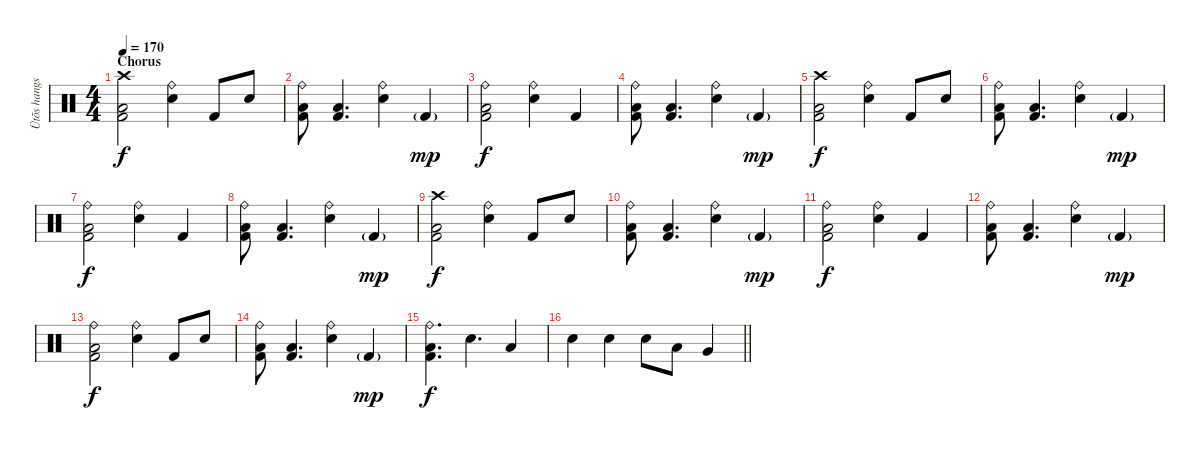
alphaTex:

\track ("Ütõs hangszer" "Ütõs hangs") {instrument percussion}
\staff {score}
\articulation defaults
\ts (4 4)
\section ("" "Chorus")
\tempo 170
\clef neutral
\ks c
("Crash high (hit)" "Kick (hit) 2" "Low Floor Tom (hit)").2{dy f} ("Ride (bell)" "Electric Snare (hit)").4 "Kick (hit) 2".8 "Electric Snare (hit)".8 |
("Ride (bell)" "Kick (hit) 2" "Low Floor Tom (hit)").8 ("Kick (hit) 2" "Low Floor Tom (hit)").4{d} ("Ride (bell)" "Electric Snare (hit)").4 "Kick (hit) 2"{g}.4{dy mp} |
("Ride (bell)" "Kick (hit) 2" "Low Floor Tom (hit)").2{dy f} ("Ride (bell)" "Electric Snare (hit)").4 "Kick (hit) 2".4 |
("Ride (bell)" "Kick (hit) 2" "Low Floor Tom (hit)").8 ("Kick (hit) 2" "Low Floor Tom (hit)").4{d} ("Ride (bell)" "Electric Snare (hit)").4 "Kick (hit) 2"{g}.4{dy mp} |
("Crash high (hit)" "Kick (hit) 2" "Low Floor Tom (hit)").2{dy f} ("Ride (bell)" "Electric Snare (hit)").4 "Kick (hit) 2".8 "Electric Snare (hit)".8 |
("Ride (bell)" "Kick (hit) 2" "Low Floor Tom (hit)").8 ("Kick (hit) 2" "Low Floor Tom (hit)").4{d} ("Ride (bell)" "Electric Snare (hit)").4 "Kick (hit) 2"{g}.4{dy mp} |
("Ride (bell)" "Kick (hit) 2" "Low Floor Tom (hit)").2{dy f} ("Ride (bell)" "Electric Snare (hit)").4 "Kick (hit) 2".4 |
("Ride (bell)" "Kick (hit) 2" "Low Floor Tom (hit)").8 ("Kick (hit) 2" "Low Floor Tom (hit)").4{d} ("Ride (bell)" "Electric Snare (hit)").4 "Kick (hit) 2"{g}.4{dy mp} |
("Crash high (hit)" "Kick (hit) 2" "Low Floor Tom (hit)").2{dy f} ("Ride (bell)" "Electric Snare (hit)").4 "Kick (hit) 2".8 "Electric Snare (hit)".8 |
("Ride (bell)" "Kick (hit) 2" "Low Floor Tom (hit)").8 ("Kick (hit) 2" "Low Floor Tom (hit)").4{d} ("Ride (bell)" "Electric Snare (hit)").4 "Kick (hit) 2"{g}.4{dy mp} |
("Ride (bell)" "Kick (hit) 2" "Low Floor Tom (hit)").2{dy f} ("Ride (bell)" "Electric Snare (hit)").4 "Kick (hit) 2".4 |
("Ride (bell)" "Kick (hit) 2" "Low Floor Tom (hit)").8 ("Kick (hit) 2" "Low Floor Tom (hit)").4{d} ("Ride (bell)" "Electric Snare (hit)").4 "Kick (hit) 2"{g}.4{dy mp} |
("Ride (bell)" "Kick (hit) 2" "Low Floor Tom (hit)").2{dy f} ("Ride (bell)" "Electric Snare (hit)").4 "Kick (hit) 2".8 "Electric Snare (hit)".8 |
("Ride (bell)" "Kick (hit) 2" "Low Floor Tom (hit)").8 ("Kick (hit) 2" "Low Floor Tom (hit)").4{d} ("Ride (bell)" "Electric Snare (hit)").4 "Kick (hit) 2"{g}.4{dy mp} |
("Ride (bell)" "Kick (hit) 2" "Low Floor Tom (hit)").4{d dy f} "Electric Snare (hit)".4{d} "Low Tom (hit)".4 |
\barLineRight lightlight "Electric Snare (hit)".4 "Electric Snare (hit)".4 "Electric Snare (hit)".8 "Low Tom (hit)".8 "Very Low Tom (hit)".4
